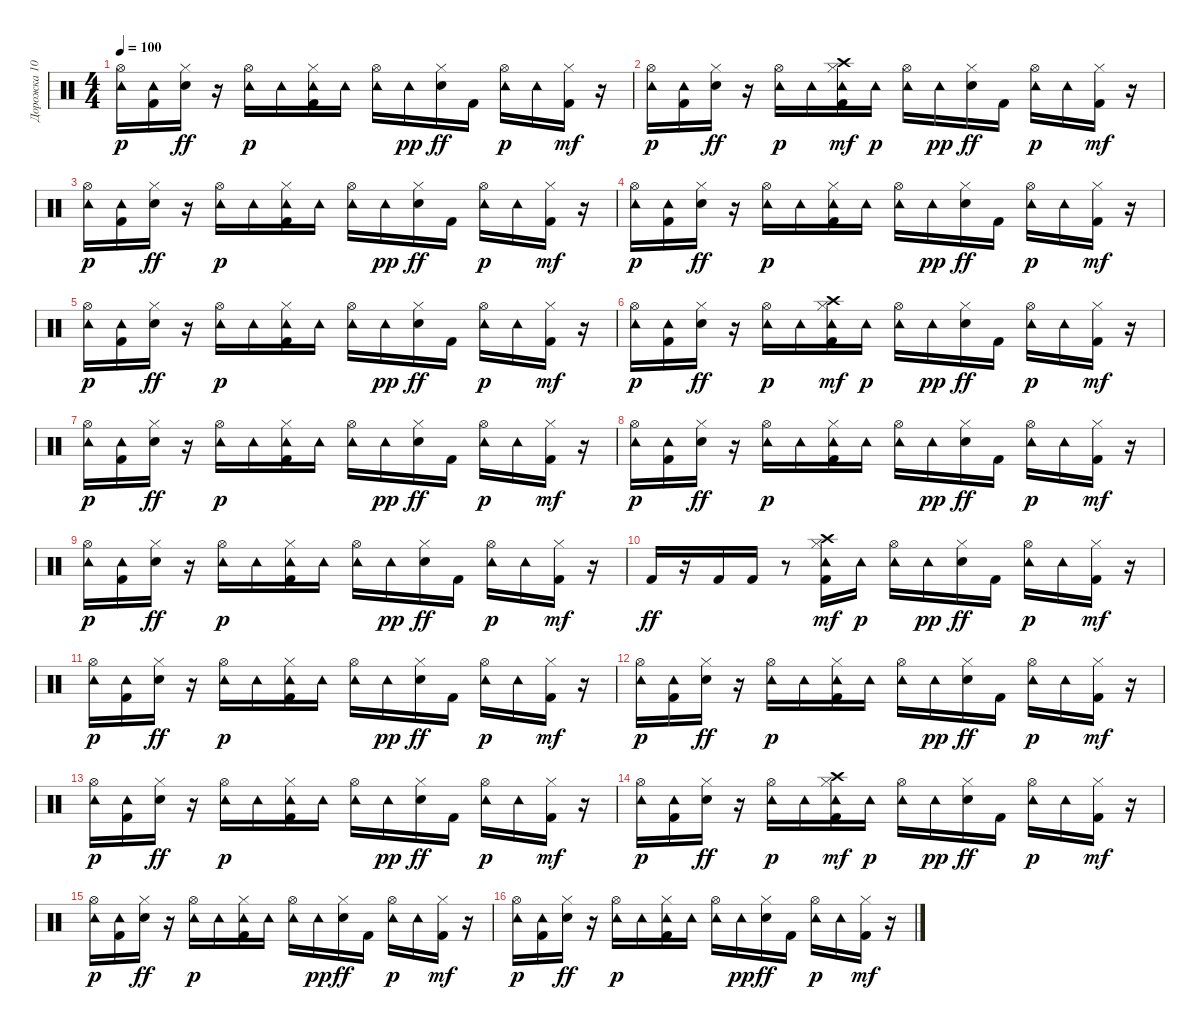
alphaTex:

\track ("Дорожка 10" "Дорожка 10") {instrument percussion}
\staff {score}
\articulation defaults
\ts (4 4)
\tempo 100
\clef neutral
\ks c
("Hi-Hat (open)" "Tambourine (hit)").16{dy p} ("Kick (hit) 2" "Tambourine (hit)").16 ("Hi-Hat (closed)" "Snare (hit) 2").16{dy ff} r.16 ("Hi-Hat (open)" "Tambourine (hit)").16{dy p} "Tambourine (hit)".16 ("Kick (hit) 2" "Hi-Hat (closed)" "Tambourine (hit)").16 "Tambourine (hit)".16 ("Hi-Hat (open)" "Tambourine (hit)").16 "Tambourine (hit)".16{dy pp} ("Hi-Hat (closed)" "Snare (hit) 2").16{dy ff} "Kick (hit) 2".16 ("Hi-Hat (open)" "Tambourine (hit)").16{dy p} "Tambourine (hit)".16 ("Kick (hit) 2" "Hi-Hat (closed)").16{dy mf} r.16 |
("Hi-Hat (open)" "Tambourine (hit)").16{dy p} ("Kick (hit) 2" "Tambourine (hit)").16 ("Hi-Hat (closed)" "Snare (hit) 2").16{dy ff} r.16 ("Hi-Hat (open)" "Tambourine (hit)").16{dy p} "Tambourine (hit)".16 ("Kick (hit) 2" "Hi-Hat (closed)" "Tambourine (hit)" "Crash high (hit)").16{dy mf} "Tambourine (hit)".16{dy p} ("Hi-Hat (open)" "Tambourine (hit)").16 "Tambourine (hit)".16{dy pp} ("Hi-Hat (closed)" "Snare (hit) 2").16{dy ff} "Kick (hit) 2".16 ("Hi-Hat (open)" "Tambourine (hit)").16{dy p} "Tambourine (hit)".16 ("Kick (hit) 2" "Hi-Hat (closed)").16{dy mf} r.16 |
("Hi-Hat (open)" "Tambourine (hit)").16{dy p} ("Kick (hit) 2" "Tambourine (hit)").16 ("Hi-Hat (closed)" "Snare (hit) 2").16{dy ff} r.16 ("Hi-Hat (open)" "Tambourine (hit)").16{dy p} "Tambourine (hit)".16 ("Kick (hit) 2" "Hi-Hat (closed)" "Tambourine (hit)").16 "Tambourine (hit)".16 ("Hi-Hat (open)" "Tambourine (hit)").16 "Tambourine (hit)".16{dy pp} ("Hi-Hat (closed)" "Snare (hit) 2").16{dy ff} "Kick (hit) 2".16 ("Hi-Hat (open)" "Tambourine (hit)").16{dy p} "Tambourine (hit)".16 ("Kick (hit) 2" "Hi-Hat (closed)").16{dy mf} r.16 |
("Hi-Hat (open)" "Tambourine (hit)").16{dy p} ("Kick (hit) 2" "Tambourine (hit)").16 ("Hi-Hat (closed)" "Snare (hit) 2").16{dy ff} r.16 ("Hi-Hat (open)" "Tambourine (hit)").16{dy p} "Tambourine (hit)".16 ("Kick (hit) 2" "Hi-Hat (closed)" "Tambourine (hit)").16 "Tambourine (hit)".16 ("Hi-Hat (open)" "Tambourine (hit)").16 "Tambourine (hit)".16{dy pp} ("Hi-Hat (closed)" "Snare (hit) 2").16{dy ff} "Kick (hit) 2".16 ("Hi-Hat (open)" "Tambourine (hit)").16{dy p} "Tambourine (hit)".16 ("Kick (hit) 2" "Hi-Hat (closed)").16{dy mf} r.16 |
("Hi-Hat (open)" "Tambourine (hit)").16{dy p} ("Kick (hit) 2" "Tambourine (hit)").16 ("Hi-Hat (closed)" "Snare (hit) 2").16{dy ff} r.16 ("Hi-Hat (open)" "Tambourine (hit)").16{dy p} "Tambourine (hit)".16 ("Kick (hit) 2" "Hi-Hat (closed)" "Tambourine (hit)").16 "Tambourine (hit)".16 ("Hi-Hat (open)" "Tambourine (hit)").16 "Tambourine (hit)".16{dy pp} ("Hi-Hat (closed)" "Snare (hit) 2").16{dy ff} "Kick (hit) 2".16 ("Hi-Hat (open)" "Tambourine (hit)").16{dy p} "Tambourine (hit)".16 ("Kick (hit) 2" "Hi-Hat (closed)").16{dy mf} r.16 |
("Hi-Hat (open)" "Tambourine (hit)").16{dy p} ("Kick (hit) 2" "Tambourine (hit)").16 ("Hi-Hat (closed)" "Snare (hit) 2").16{dy ff} r.16 ("Hi-Hat (open)" "Tambourine (hit)").16{dy p} "Tambourine (hit)".16 ("Kick (hit) 2" "Hi-Hat (closed)" "Tambourine (hit)" "Crash high (hit)").16{dy mf} "Tambourine (hit)".16{dy p} ("Hi-Hat (open)" "Tambourine (hit)").16 "Tambourine (hit)".16{dy pp} ("Hi-Hat (closed)" "Snare (hit) 2").16{dy ff} "Kick (hit) 2".16 ("Hi-Hat (open)" "Tambourine (hit)").16{dy p} "Tambourine (hit)".16 ("Kick (hit) 2" "Hi-Hat (closed)").16{dy mf} r.16 |
("Hi-Hat (open)" "Tambourine (hit)").16{dy p} ("Kick (hit) 2" "Tambourine (hit)").16 ("Hi-Hat (closed)" "Snare (hit) 2").16{dy ff} r.16 ("Hi-Hat (open)" "Tambourine (hit)").16{dy p} "Tambourine (hit)".16 ("Kick (hit) 2" "Hi-Hat (closed)" "Tambourine (hit)").16 "Tambourine (hit)".16 ("Hi-Hat (open)" "Tambourine (hit)").16 "Tambourine (hit)".16{dy pp} ("Hi-Hat (closed)" "Snare (hit) 2").16{dy ff} "Kick (hit) 2".16 ("Hi-Hat (open)" "Tambourine (hit)").16{dy p} "Tambourine (hit)".16 ("Kick (hit) 2" "Hi-Hat (closed)").16{dy mf} r.16 |
("Hi-Hat (open)" "Tambourine (hit)").16{dy p} ("Kick (hit) 2" "Tambourine (hit)").16 ("Hi-Hat (closed)" "Snare (hit) 2").16{dy ff} r.16 ("Hi-Hat (open)" "Tambourine (hit)").16{dy p} "Tambourine (hit)".16 ("Kick (hit) 2" "Hi-Hat (closed)" "Tambourine (hit)").16 "Tambourine (hit)".16 ("Hi-Hat (open)" "Tambourine (hit)").16 "Tambourine (hit)".16{dy pp} ("Hi-Hat (closed)" "Snare (hit) 2").16{dy ff} "Kick (hit) 2".16 ("Hi-Hat (open)" "Tambourine (hit)").16{dy p} "Tambourine (hit)".16 ("Kick (hit) 2" "Hi-Hat (closed)").16{dy mf} r.16 |
("Hi-Hat (open)" "Tambourine (hit)").16{dy p} ("Kick (hit) 2" "Tambourine (hit)").16 ("Hi-Hat (closed)" "Snare (hit) 2").16{dy ff} r.16 ("Hi-Hat (open)" "Tambourine (hit)").16{dy p} "Tambourine (hit)".16 ("Kick (hit) 2" "Hi-Hat (closed)" "Tambourine (hit)").16 "Tambourine (hit)".16 ("Hi-Hat (open)" "Tambourine (hit)").16 "Tambourine (hit)".16{dy pp} ("Hi-Hat (closed)" "Snare (hit) 2").16{dy ff} "Kick (hit) 2".16 ("Hi-Hat (open)" "Tambourine (hit)").16{dy p} "Tambourine (hit)".16 ("Kick (hit) 2" "Hi-Hat (closed)").16{dy mf} r.16 |
"Kick (hit) 2".16{dy ff} r.16 "Kick (hit) 2".16 "Kick (hit) 2".16 r.8 ("Kick (hit) 2" "Hi-Hat (closed)" "Tambourine (hit)" "Crash high (hit)").16{dy mf} "Tambourine (hit)".16{dy p} ("Hi-Hat (open)" "Tambourine (hit)").16 "Tambourine (hit)".16{dy pp} ("Hi-Hat (closed)" "Snare (hit) 2").16{dy ff} "Kick (hit) 2".16 ("Hi-Hat (open)" "Tambourine (hit)").16{dy p} "Tambourine (hit)".16 ("Kick (hit) 2" "Hi-Hat (closed)").16{dy mf} r.16 |
("Hi-Hat (open)" "Tambourine (hit)").16{dy p} ("Kick (hit) 2" "Tambourine (hit)").16 ("Hi-Hat (closed)" "Snare (hit) 2").16{dy ff} r.16 ("Hi-Hat (open)" "Tambourine (hit)").16{dy p} "Tambourine (hit)".16 ("Kick (hit) 2" "Hi-Hat (closed)" "Tambourine (hit)").16 "Tambourine (hit)".16 ("Hi-Hat (open)" "Tambourine (hit)").16 "Tambourine (hit)".16{dy pp} ("Hi-Hat (closed)" "Snare (hit) 2").16{dy ff} "Kick (hit) 2".16 ("Hi-Hat (open)" "Tambourine (hit)").16{dy p} "Tambourine (hit)".16 ("Kick (hit) 2" "Hi-Hat (closed)").16{dy mf} r.16 |
("Hi-Hat (open)" "Tambourine (hit)").16{dy p} ("Kick (hit) 2" "Tambourine (hit)").16 ("Hi-Hat (closed)" "Snare (hit) 2").16{dy ff} r.16 ("Hi-Hat (open)" "Tambourine (hit)").16{dy p} "Tambourine (hit)".16 ("Kick (hit) 2" "Hi-Hat (closed)" "Tambourine (hit)").16 "Tambourine (hit)".16 ("Hi-Hat (open)" "Tambourine (hit)").16 "Tambourine (hit)".16{dy pp} ("Hi-Hat (closed)" "Snare (hit) 2").16{dy ff} "Kick (hit) 2".16 ("Hi-Hat (open)" "Tambourine (hit)").16{dy p} "Tambourine (hit)".16 ("Kick (hit) 2" "Hi-Hat (closed)").16{dy mf} r.16 |
("Hi-Hat (open)" "Tambourine (hit)").16{dy p} ("Kick (hit) 2" "Tambourine (hit)").16 ("Hi-Hat (closed)" "Snare (hit) 2").16{dy ff} r.16 ("Hi-Hat (open)" "Tambourine (hit)").16{dy p} "Tambourine (hit)".16 ("Kick (hit) 2" "Hi-Hat (closed)" "Tambourine (hit)").16 "Tambourine (hit)".16 ("Hi-Hat (open)" "Tambourine (hit)").16 "Tambourine (hit)".16{dy pp} ("Hi-Hat (closed)" "Snare (hit) 2").16{dy ff} "Kick (hit) 2".16 ("Hi-Hat (open)" "Tambourine (hit)").16{dy p} "Tambourine (hit)".16 ("Kick (hit) 2" "Hi-Hat (closed)").16{dy mf} r.16 |
("Hi-Hat (open)" "Tambourine (hit)").16{dy p} ("Kick (hit) 2" "Tambourine (hit)").16 ("Hi-Hat (closed)" "Snare (hit) 2").16{dy ff} r.16 ("Hi-Hat (open)" "Tambourine (hit)").16{dy p} "Tambourine (hit)".16 ("Kick (hit) 2" "Hi-Hat (closed)" "Tambourine (hit)" "Crash high (hit)").16{dy mf} "Tambourine (hit)".16{dy p} ("Hi-Hat (open)" "Tambourine (hit)").16 "Tambourine (hit)".16{dy pp} ("Hi-Hat (closed)" "Snare (hit) 2").16{dy ff} "Kick (hit) 2".16 ("Hi-Hat (open)" "Tambourine (hit)").16{dy p} "Tambourine (hit)".16 ("Kick (hit) 2" "Hi-Hat (closed)").16{dy mf} r.16 |
("Hi-Hat (open)" "Tambourine (hit)").16{dy p} ("Kick (hit) 2" "Tambourine (hit)").16 ("Hi-Hat (closed)" "Snare (hit) 2").16{dy ff} r.16 ("Hi-Hat (open)" "Tambourine (hit)").16{dy p} "Tambourine (hit)".16 ("Kick (hit) 2" "Hi-Hat (closed)" "Tambourine (hit)").16 "Tambourine (hit)".16 ("Hi-Hat (open)" "Tambourine (hit)").16 "Tambourine (hit)".16{dy pp} ("Hi-Hat (closed)" "Snare (hit) 2").16{dy ff} "Kick (hit) 2".16 ("Hi-Hat (open)" "Tambourine (hit)").16{dy p} "Tambourine (hit)".16 ("Kick (hit) 2" "Hi-Hat (closed)").16{dy mf} r.16 |
("Hi-Hat (open)" "Tambourine (hit)").16{dy p} ("Kick (hit) 2" "Tambourine (hit)").16 ("Hi-Hat (closed)" "Snare (hit) 2").16{dy ff} r.16 ("Hi-Hat (open)" "Tambourine (hit)").16{dy p} "Tambourine (hit)".16 ("Kick (hit) 2" "Hi-Hat (closed)" "Tambourine (hit)").16 "Tambourine (hit)".16 ("Hi-Hat (open)" "Tambourine (hit)").16 "Tambourine (hit)".16{dy pp} ("Hi-Hat (closed)" "Snare (hit) 2").16{dy ff} "Kick (hit) 2".16 ("Hi-Hat (open)" "Tambourine (hit)").16{dy p} "Tambourine (hit)".16 ("Kick (hit) 2" "Hi-Hat (closed)").16{dy mf} r.16
